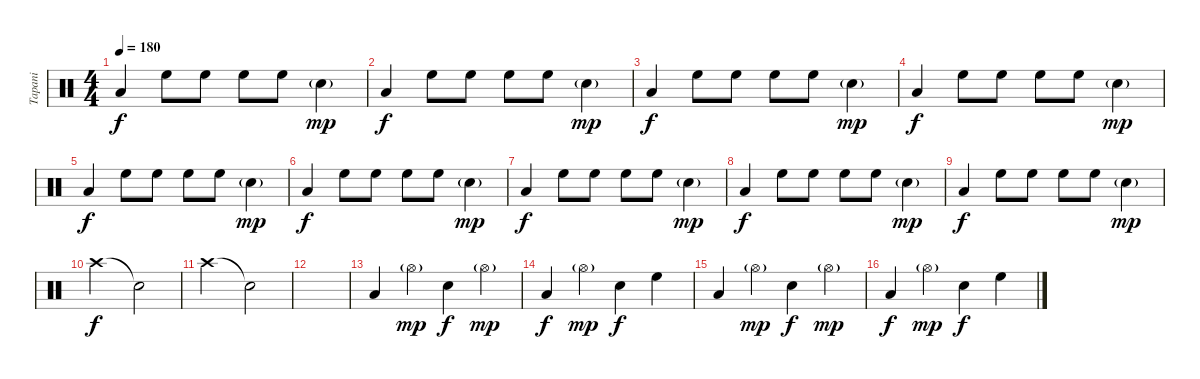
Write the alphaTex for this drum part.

\track ("Tapani" "Tapani") {instrument percussion}
\staff {score}
\articulation defaults
\ts (4 4)
\tempo 180
\clef neutral
\ks c "Low Tom (hit)".4{dy f} "High Floor Tom (hit)".8 "High Floor Tom (hit)".8 "High Floor Tom (hit)".8 "High Floor Tom (hit)".8 "Electric Snare (hit)"{g}.4{dy mp}
|
"Low Tom (hit)".4{dy f} "High Floor Tom (hit)".8 "High Floor Tom (hit)".8 "High Floor Tom (hit)".8 "High Floor Tom (hit)".8 "Electric Snare (hit)"{g}.4{dy mp} |
"Low Tom (hit)".4{dy f} "High Floor Tom (hit)".8 "High Floor Tom (hit)".8 "High Floor Tom (hit)".8 "High Floor Tom (hit)".8 "Electric Snare (hit)"{g}.4{dy mp} |
"Low Tom (hit)".4{dy f} "High Floor Tom (hit)".8 "High Floor Tom (hit)".8 "High Floor Tom (hit)".8 "High Floor Tom (hit)".8 "Electric Snare (hit)"{g}.4{dy mp} |
"Low Tom (hit)".4{dy f} "High Floor Tom (hit)".8 "High Floor Tom (hit)".8 "High Floor Tom (hit)".8 "High Floor Tom (hit)".8 "Electric Snare (hit)"{g}.4{dy mp} |
"Low Tom (hit)".4{dy f} "High Floor Tom (hit)".8 "High Floor Tom (hit)".8 "High Floor Tom (hit)".8 "High Floor Tom (hit)".8 "Electric Snare (hit)"{g}.4{dy mp} |
"Low Tom (hit)".4{dy f} "High Floor Tom (hit)".8 "High Floor Tom (hit)".8 "High Floor Tom (hit)".8 "High Floor Tom (hit)".8 "Electric Snare (hit)"{g}.4{dy mp} |
"Low Tom (hit)".4{dy f} "High Floor Tom (hit)".8 "High Floor Tom (hit)".8 "High Floor Tom (hit)".8 "High Floor Tom (hit)".8 "Electric Snare (hit)"{g}.4{dy mp} |
"Low Tom (hit)".4{dy f} "High Floor Tom (hit)".8 "High Floor Tom (hit)".8 "High Floor Tom (hit)".8 "High Floor Tom (hit)".8 "Electric Snare (hit)"{g}.4{dy mp} |
"Crash high (hit)".2{dy f} "Snare (hit)"{t}.2 |
"Crash high (hit)".2 "Snare (hit)"{t}.2 |
|
"Low Tom (hit)".4 "Hi-Hat (open)"{g}.4{dy mp} "Electric Snare (hit)".4{dy f} "Hi-Hat (open)"{g}.4{dy mp} |
"Low Tom (hit)".4{dy f} "Hi-Hat (open)"{g}.4{dy mp} "Electric Snare (hit)".4{dy f} "High Floor Tom (hit)".4 |
"Low Tom (hit)".4 "Hi-Hat (open)"{g}.4{dy mp} "Electric Snare (hit)".4{dy f} "Hi-Hat (open)"{g}.4{dy mp} |
"Low Tom (hit)".4{dy f} "Hi-Hat (open)"{g}.4{dy mp} "Electric Snare (hit)".4{dy f} "High Floor Tom (hit)".4
